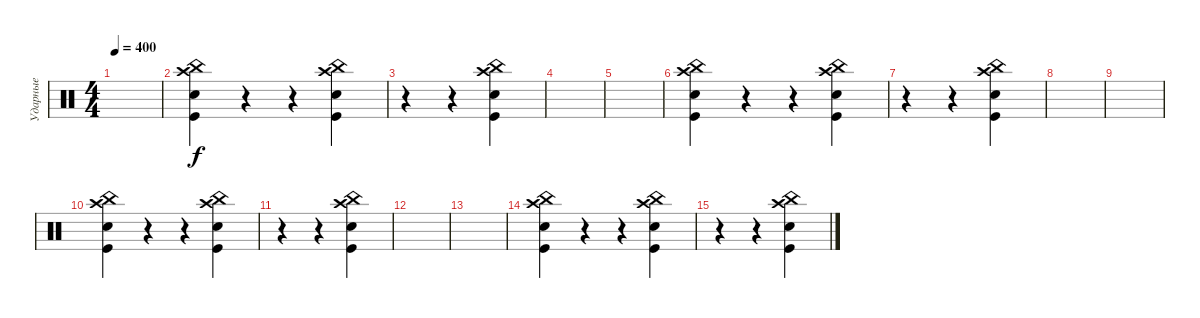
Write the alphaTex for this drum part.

\track ("Ударные" "Ударные") {instrument percussion}
\staff {score}
\articulation defaults
\ts (4 4)
\tempo 400
\clef neutral
\ks c
|
("Crash high (hit)" "China (hit)" "Kick (hit)" "Electric Snare (hit)").4 r.4 r.4 ("Electric Snare (hit)" "Kick (hit)" "Crash high (hit)" "China (hit)").4 |
r.4 r.4 ("China (hit)" "Crash high (hit)" "Kick (hit)" "Electric Snare (hit)").4 |
|
|
("Crash high (hit)" "China (hit)" "Kick (hit)" "Electric Snare (hit)").4 r.4 r.4 ("Electric Snare (hit)" "Kick (hit)" "Crash high (hit)" "China (hit)").4 |
r.4 r.4 ("China (hit)" "Crash high (hit)" "Kick (hit)" "Electric Snare (hit)").4 |
|
|
("Crash high (hit)" "China (hit)" "Kick (hit)" "Electric Snare (hit)").4 r.4 r.4 ("Electric Snare (hit)" "Kick (hit)" "Crash high (hit)" "China (hit)").4 |
r.4 r.4 ("China (hit)" "Crash high (hit)" "Kick (hit)" "Electric Snare (hit)").4 |
|
|
("Crash high (hit)" "China (hit)" "Kick (hit)" "Electric Snare (hit)").4 r.4 r.4 ("Electric Snare (hit)" "Kick (hit)" "Crash high (hit)" "China (hit)").4 |
r.4 r.4 ("China (hit)" "Crash high (hit)" "Kick (hit)" "Electric Snare (hit)").4
